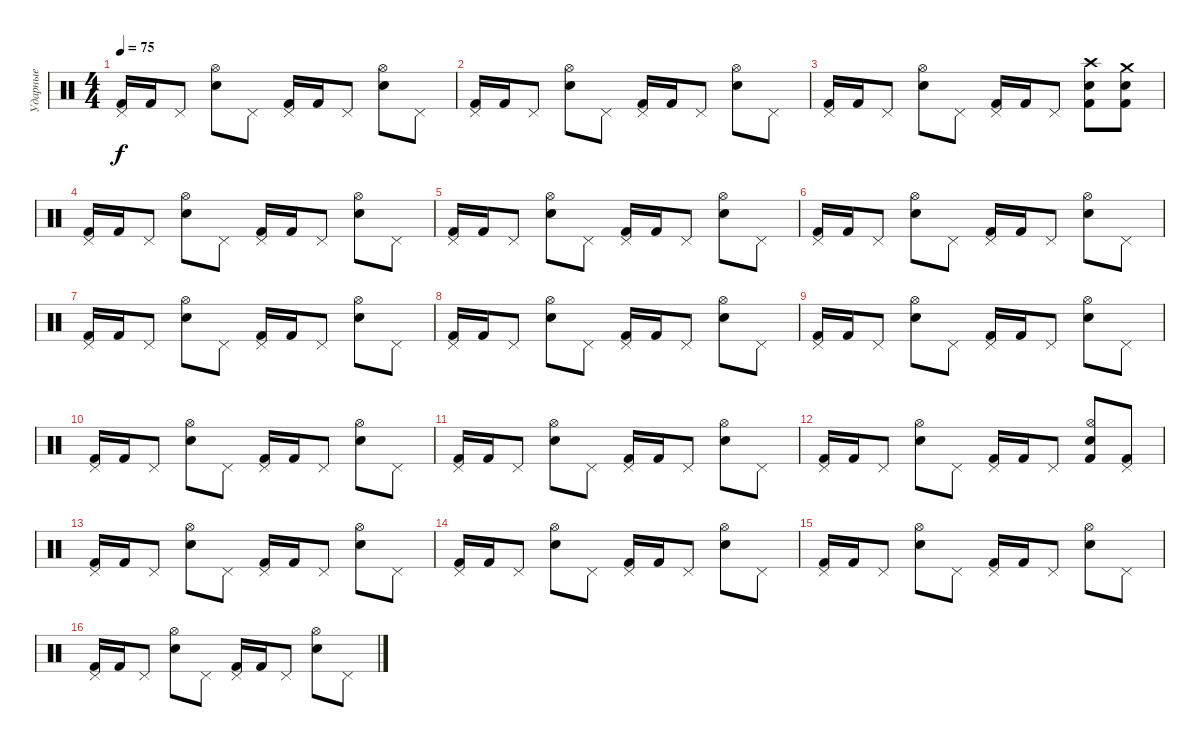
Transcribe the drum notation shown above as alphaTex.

\track ("Ударные" "Ударные") {instrument percussion}
\staff {score}
\articulation defaults
\ts (4 4)
\tempo 75
\clef neutral
\ks c
("Pedal Hi-Hat (hit)" "Kick (hit) 2").16{dy f} "Kick (hit) 2".16 "Pedal Hi-Hat (hit)".8 ("Hi-Hat (open)" "Electric Snare (hit)").8 "Pedal Hi-Hat (hit)".8 ("Pedal Hi-Hat (hit)" "Kick (hit) 2").16 "Kick (hit) 2".16 "Pedal Hi-Hat (hit)".8 ("Hi-Hat (open)" "Electric Snare (hit)").8 "Pedal Hi-Hat (hit)".8 |
("Pedal Hi-Hat (hit)" "Kick (hit) 2").16 "Kick (hit) 2".16 "Pedal Hi-Hat (hit)".8 ("Hi-Hat (open)" "Electric Snare (hit)").8 "Pedal Hi-Hat (hit)".8 ("Pedal Hi-Hat (hit)" "Kick (hit) 2").16 "Kick (hit) 2".16 "Pedal Hi-Hat (hit)".8 ("Hi-Hat (open)" "Electric Snare (hit)").8 "Pedal Hi-Hat (hit)".8 |
("Pedal Hi-Hat (hit)" "Kick (hit) 2").16 "Kick (hit) 2".16 "Pedal Hi-Hat (hit)".8 ("Hi-Hat (open)" "Electric Snare (hit)").8 "Pedal Hi-Hat (hit)".8 ("Pedal Hi-Hat (hit)" "Kick (hit) 2").16 "Kick (hit) 2".16 "Pedal Hi-Hat (hit)".8 ("Kick (hit) 2" "Crash high (hit)" "Electric Snare (hit)").8 ("Kick (hit) 2" "Electric Snare (hit)" "Crash medium (hit)").8 |
("Pedal Hi-Hat (hit)" "Kick (hit) 2").16 "Kick (hit) 2".16 "Pedal Hi-Hat (hit)".8 ("Hi-Hat (open)" "Electric Snare (hit)").8 "Pedal Hi-Hat (hit)".8 ("Pedal Hi-Hat (hit)" "Kick (hit) 2").16 "Kick (hit) 2".16 "Pedal Hi-Hat (hit)".8 ("Hi-Hat (open)" "Electric Snare (hit)").8 "Pedal Hi-Hat (hit)".8 |
("Pedal Hi-Hat (hit)" "Kick (hit) 2").16 "Kick (hit) 2".16 "Pedal Hi-Hat (hit)".8 ("Hi-Hat (open)" "Electric Snare (hit)").8 "Pedal Hi-Hat (hit)".8 ("Pedal Hi-Hat (hit)" "Kick (hit) 2").16 "Kick (hit) 2".16 "Pedal Hi-Hat (hit)".8 ("Hi-Hat (open)" "Electric Snare (hit)").8 "Pedal Hi-Hat (hit)".8 |
("Pedal Hi-Hat (hit)" "Kick (hit) 2").16 "Kick (hit) 2".16 "Pedal Hi-Hat (hit)".8 ("Hi-Hat (open)" "Electric Snare (hit)").8 "Pedal Hi-Hat (hit)".8 ("Pedal Hi-Hat (hit)" "Kick (hit) 2").16 "Kick (hit) 2".16 "Pedal Hi-Hat (hit)".8 ("Hi-Hat (open)" "Electric Snare (hit)").8 "Pedal Hi-Hat (hit)".8 |
("Pedal Hi-Hat (hit)" "Kick (hit) 2").16 "Kick (hit) 2".16 "Pedal Hi-Hat (hit)".8 ("Hi-Hat (open)" "Electric Snare (hit)").8 "Pedal Hi-Hat (hit)".8 ("Pedal Hi-Hat (hit)" "Kick (hit) 2").16 "Kick (hit) 2".16 "Pedal Hi-Hat (hit)".8 ("Hi-Hat (open)" "Electric Snare (hit)").8 "Pedal Hi-Hat (hit)".8 |
("Pedal Hi-Hat (hit)" "Kick (hit) 2").16 "Kick (hit) 2".16 "Pedal Hi-Hat (hit)".8 ("Hi-Hat (open)" "Electric Snare (hit)").8 "Pedal Hi-Hat (hit)".8 ("Pedal Hi-Hat (hit)" "Kick (hit) 2").16 "Kick (hit) 2".16 "Pedal Hi-Hat (hit)".8 ("Hi-Hat (open)" "Electric Snare (hit)").8 "Pedal Hi-Hat (hit)".8 |
("Pedal Hi-Hat (hit)" "Kick (hit) 2").16 "Kick (hit) 2".16 "Pedal Hi-Hat (hit)".8 ("Hi-Hat (open)" "Electric Snare (hit)").8 "Pedal Hi-Hat (hit)".8 ("Pedal Hi-Hat (hit)" "Kick (hit) 2").16 "Kick (hit) 2".16 "Pedal Hi-Hat (hit)".8 ("Hi-Hat (open)" "Electric Snare (hit)").8 "Pedal Hi-Hat (hit)".8 |
("Pedal Hi-Hat (hit)" "Kick (hit) 2").16 "Kick (hit) 2".16 "Pedal Hi-Hat (hit)".8 ("Hi-Hat (open)" "Electric Snare (hit)").8 "Pedal Hi-Hat (hit)".8 ("Pedal Hi-Hat (hit)" "Kick (hit) 2").16 "Kick (hit) 2".16 "Pedal Hi-Hat (hit)".8 ("Hi-Hat (open)" "Electric Snare (hit)").8 "Pedal Hi-Hat (hit)".8 |
("Pedal Hi-Hat (hit)" "Kick (hit) 2").16 "Kick (hit) 2".16 "Pedal Hi-Hat (hit)".8 ("Hi-Hat (open)" "Electric Snare (hit)").8 "Pedal Hi-Hat (hit)".8 ("Pedal Hi-Hat (hit)" "Kick (hit) 2").16 "Kick (hit) 2".16 "Pedal Hi-Hat (hit)".8 ("Hi-Hat (open)" "Electric Snare (hit)").8 "Pedal Hi-Hat (hit)".8 |
("Pedal Hi-Hat (hit)" "Kick (hit) 2").16 "Kick (hit) 2".16 "Pedal Hi-Hat (hit)".8 ("Hi-Hat (open)" "Electric Snare (hit)").8 "Pedal Hi-Hat (hit)".8 ("Pedal Hi-Hat (hit)" "Kick (hit) 2").16 "Kick (hit) 2".16 "Pedal Hi-Hat (hit)".8 ("Hi-Hat (open)" "Electric Snare (hit)" "Kick (hit) 2").8 ("Pedal Hi-Hat (hit)" "Kick (hit) 2").8 |
("Pedal Hi-Hat (hit)" "Kick (hit) 2").16 "Kick (hit) 2".16 "Pedal Hi-Hat (hit)".8 ("Hi-Hat (open)" "Electric Snare (hit)").8 "Pedal Hi-Hat (hit)".8 ("Pedal Hi-Hat (hit)" "Kick (hit) 2").16 "Kick (hit) 2".16 "Pedal Hi-Hat (hit)".8 ("Hi-Hat (open)" "Electric Snare (hit)").8 "Pedal Hi-Hat (hit)".8 |
("Pedal Hi-Hat (hit)" "Kick (hit) 2").16 "Kick (hit) 2".16 "Pedal Hi-Hat (hit)".8 ("Hi-Hat (open)" "Electric Snare (hit)").8 "Pedal Hi-Hat (hit)".8 ("Pedal Hi-Hat (hit)" "Kick (hit) 2").16 "Kick (hit) 2".16 "Pedal Hi-Hat (hit)".8 ("Hi-Hat (open)" "Electric Snare (hit)").8 "Pedal Hi-Hat (hit)".8 |
("Pedal Hi-Hat (hit)" "Kick (hit) 2").16 "Kick (hit) 2".16 "Pedal Hi-Hat (hit)".8 ("Hi-Hat (open)" "Electric Snare (hit)").8 "Pedal Hi-Hat (hit)".8 ("Pedal Hi-Hat (hit)" "Kick (hit) 2").16 "Kick (hit) 2".16 "Pedal Hi-Hat (hit)".8 ("Hi-Hat (open)" "Electric Snare (hit)").8 "Pedal Hi-Hat (hit)".8 |
("Pedal Hi-Hat (hit)" "Kick (hit) 2").16 "Kick (hit) 2".16 "Pedal Hi-Hat (hit)".8 ("Hi-Hat (open)" "Electric Snare (hit)").8 "Pedal Hi-Hat (hit)".8 ("Pedal Hi-Hat (hit)" "Kick (hit) 2").16 "Kick (hit) 2".16 "Pedal Hi-Hat (hit)".8 ("Hi-Hat (open)" "Electric Snare (hit)").8 "Pedal Hi-Hat (hit)".8
